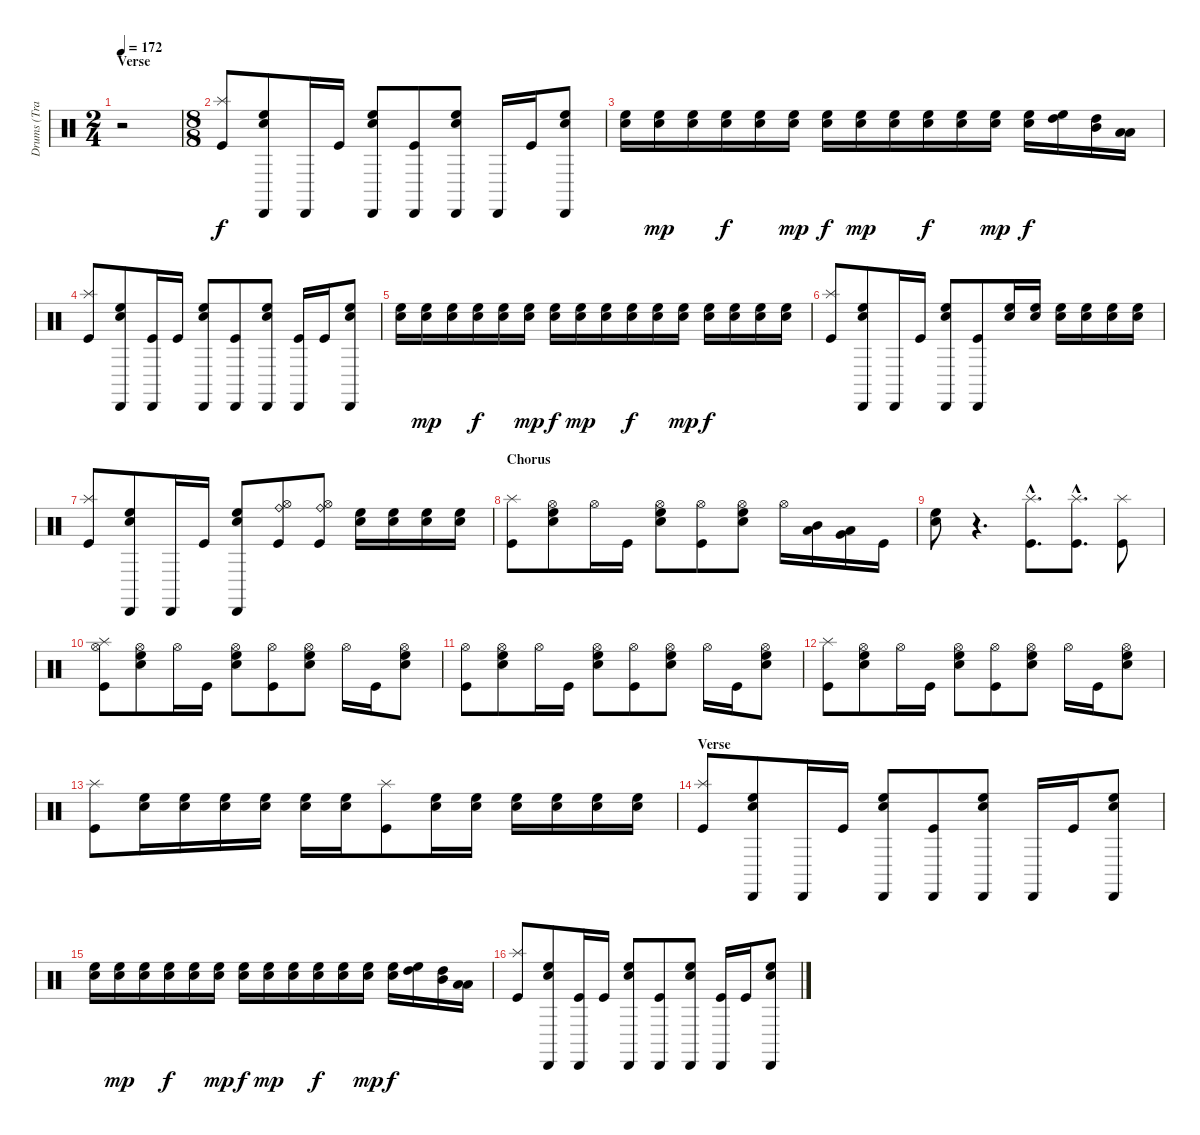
\track ("Drums (Travis Barker)" "Drums (Tra") {instrument percussion}
\staff {score}
\articulation defaults
\ts (2 4)
\section ("" "Verse")
\tempo 172
\clef neutral
\ks c
r.2{dy f} |
\ts (8 8)
("Splash (hit)" "Kick (hit)").8 ("Cabasa (hit)" "High Floor Tom (hit)" "Electric Snare (hit)").8 "Cabasa (hit)".16 "Kick (hit)".16 ("Cabasa (hit)" "High Floor Tom (hit)" "Electric Snare (hit)").8 ("Cabasa (hit)" "Kick (hit)").8 ("Cabasa (hit)" "High Floor Tom (hit)" "Electric Snare (hit)").8 "Cabasa (hit)".16 "Kick (hit)".16 ("Cabasa (hit)" "High Floor Tom (hit)" "Electric Snare (hit)").8 |
("High Floor Tom (hit)" "Electric Snare (hit)").16 ("Electric Snare (hit)" "High Floor Tom (hit)").16{dy mp} ("Electric Snare (hit)" "High Floor Tom (hit)").16 ("High Floor Tom (hit)" "Electric Snare (hit)").16{dy f} ("High Floor Tom (hit)" "Electric Snare (hit)").16 ("Electric Snare (hit)" "High Floor Tom (hit)").16{dy mp} ("High Floor Tom (hit)" "Electric Snare (hit)").16{dy f} ("Electric Snare (hit)" "High Floor Tom (hit)").16{dy mp} ("Electric Snare (hit)" "High Floor Tom (hit)").16 ("High Floor Tom (hit)" "Electric Snare (hit)").16{dy f} ("High Floor Tom (hit)" "Electric Snare (hit)").16 ("Electric Snare (hit)" "High Floor Tom (hit)").16{dy mp} ("High Floor Tom (hit)" "Electric Snare (hit)").16{dy f} ("High Tom (hit)" "High Floor Tom (hit)").16 ("Mid Tom (hit)" "High Tom (hit)").16 ("Low Floor Tom (hit)" "Low Tom (hit)").16 |
("Splash (hit)" "Kick (hit)").8 ("Cabasa (hit)" "High Floor Tom (hit)" "Electric Snare (hit)").8 ("Cabasa (hit)" "Kick (hit)").16 "Kick (hit)".16 ("Cabasa (hit)" "High Floor Tom (hit)" "Electric Snare (hit)").8 ("Cabasa (hit)" "Kick (hit)").8 ("Cabasa (hit)" "High Floor Tom (hit)" "Electric Snare (hit)").8 ("Cabasa (hit)" "Kick (hit)").16 "Kick (hit)".16 ("Cabasa (hit)" "High Floor Tom (hit)" "Electric Snare (hit)").8 |
("High Floor Tom (hit)" "Electric Snare (hit)").16 ("Electric Snare (hit)" "High Floor Tom (hit)").16{dy mp} ("Electric Snare (hit)" "High Floor Tom (hit)").16 ("High Floor Tom (hit)" "Electric Snare (hit)").16{dy f} ("High Floor Tom (hit)" "Electric Snare (hit)").16 ("Electric Snare (hit)" "High Floor Tom (hit)").16{dy mp} ("High Floor Tom (hit)" "Electric Snare (hit)").16{dy f} ("Electric Snare (hit)" "High Floor Tom (hit)").16{dy mp} ("Electric Snare (hit)" "High Floor Tom (hit)").16 ("High Floor Tom (hit)" "Electric Snare (hit)").16{dy f} ("High Floor Tom (hit)" "Electric Snare (hit)").16 ("Electric Snare (hit)" "High Floor Tom (hit)").16{dy mp} ("High Floor Tom (hit)" "Electric Snare (hit)").16{dy f} ("High Floor Tom (hit)" "Electric Snare (hit)").16 ("High Floor Tom (hit)" "Electric Snare (hit)").16 ("High Floor Tom (hit)" "Electric Snare (hit)").16 |
("Splash (hit)" "Kick (hit)").8 ("Cabasa (hit)" "High Floor Tom (hit)" "Electric Snare (hit)").8 "Cabasa (hit)".16 "Kick (hit)".16 ("Cabasa (hit)" "High Floor Tom (hit)" "Electric Snare (hit)").8 ("Cabasa (hit)" "Kick (hit)").8 ("High Floor Tom (hit)" "Electric Snare (hit)").16 ("High Floor Tom (hit)" "Electric Snare (hit)").16 ("High Floor Tom (hit)" "Electric Snare (hit)").16 ("High Floor Tom (hit)" "Electric Snare (hit)").16 ("High Floor Tom (hit)" "Electric Snare (hit)").16 ("High Floor Tom (hit)" "Electric Snare (hit)").16 |
("Splash (hit)" "Kick (hit)").8 ("Cabasa (hit)" "High Floor Tom (hit)" "Electric Snare (hit)").8 "Cabasa (hit)".16 "Kick (hit)".16 ("Cabasa (hit)" "High Floor Tom (hit)" "Electric Snare (hit)").8 ("Ride (bell)" "Hi-Hat (open)" "Kick (hit)").8 ("Ride (bell)" "Hi-Hat (open)" "Kick (hit)").8 ("High Floor Tom (hit)" "Electric Snare (hit)").16 ("High Floor Tom (hit)" "Electric Snare (hit)").16 ("High Floor Tom (hit)" "Electric Snare (hit)").16 ("High Floor Tom (hit)" "Electric Snare (hit)").16 |
\section ("" "Chorus")
("Splash (hit)" "Kick (hit)").8 ("Hi-Hat (open)" "High Floor Tom (hit)" "Electric Snare (hit)").8 "Hi-Hat (open)".16 "Kick (hit)".16 ("Hi-Hat (open)" "High Floor Tom (hit)" "Electric Snare (hit)").8 ("Hi-Hat (open)" "Kick (hit)").8 ("Hi-Hat (open)" "High Floor Tom (hit)" "Electric Snare (hit)").8 "Hi-Hat (open)".16 ("Low Tom (hit)" "Mid Tom (hit)").16 ("Very Low Tom (hit)" "Low Floor Tom (hit)").16 "Kick (hit)".16 |
("High Floor Tom (hit)" "Electric Snare (hit)").8 r.4{d} ("Splash (hit)"{hac} "Kick (hit)"{hac}).8{d} ("Splash (hit)"{hac} "Kick (hit)"{hac}).8{d} ("Splash (hit)" "Kick (hit)").8 |
("Splash (hit)" "Hi-Hat (open)" "Kick (hit)").8 ("Hi-Hat (open)" "High Floor Tom (hit)" "Electric Snare (hit)").8 "Hi-Hat (open)".16 "Kick (hit)".16 ("Hi-Hat (open)" "High Floor Tom (hit)" "Electric Snare (hit)").8 ("Hi-Hat (open)" "Kick (hit)").8 ("Hi-Hat (open)" "High Floor Tom (hit)" "Electric Snare (hit)").8 "Hi-Hat (open)".16 "Kick (hit)".16 ("Hi-Hat (open)" "High Floor Tom (hit)" "Electric Snare (hit)").8 |
("Hi-Hat (open)" "Kick (hit)").8 ("Hi-Hat (open)" "High Floor Tom (hit)" "Electric Snare (hit)").8 "Hi-Hat (open)".16 "Kick (hit)".16 ("Hi-Hat (open)" "High Floor Tom (hit)" "Electric Snare (hit)").8 ("Hi-Hat (open)" "Kick (hit)").8 ("Hi-Hat (open)" "High Floor Tom (hit)" "Electric Snare (hit)").8 "Hi-Hat (open)".16 "Kick (hit)".16 ("Hi-Hat (open)" "High Floor Tom (hit)" "Electric Snare (hit)").8 |
("Splash (hit)" "Kick (hit)").8 ("Hi-Hat (open)" "High Floor Tom (hit)" "Electric Snare (hit)").8 "Hi-Hat (open)".16 "Kick (hit)".16 ("Hi-Hat (open)" "High Floor Tom (hit)" "Electric Snare (hit)").8 ("Hi-Hat (open)" "Kick (hit)").8 ("Hi-Hat (open)" "High Floor Tom (hit)" "Electric Snare (hit)").8 "Hi-Hat (open)".16 "Kick (hit)".16 ("Hi-Hat (open)" "High Floor Tom (hit)" "Electric Snare (hit)").8 |
("Splash (hit)" "Kick (hit)").8 ("High Floor Tom (hit)" "Electric Snare (hit)").16 ("High Floor Tom (hit)" "Electric Snare (hit)").16 ("High Floor Tom (hit)" "Electric Snare (hit)").16 ("High Floor Tom (hit)" "Electric Snare (hit)").16 ("High Floor Tom (hit)" "Electric Snare (hit)").16 ("High Floor Tom (hit)" "Electric Snare (hit)").16 ("Splash (hit)" "Kick (hit)").8 ("High Floor Tom (hit)" "Electric Snare (hit)").16 ("High Floor Tom (hit)" "Electric Snare (hit)").16 ("High Floor Tom (hit)" "Electric Snare (hit)").16 ("High Floor Tom (hit)" "Electric Snare (hit)").16 ("High Floor Tom (hit)" "Electric Snare (hit)").16 ("High Floor Tom (hit)" "Electric Snare (hit)").16 |
\section ("" "Verse")
("Splash (hit)" "Kick (hit)").8 ("Cabasa (hit)" "High Floor Tom (hit)" "Electric Snare (hit)").8 "Cabasa (hit)".16 "Kick (hit)".16 ("Cabasa (hit)" "High Floor Tom (hit)" "Electric Snare (hit)").8 ("Cabasa (hit)" "Kick (hit)").8 ("Cabasa (hit)" "High Floor Tom (hit)" "Electric Snare (hit)").8 "Cabasa (hit)".16 "Kick (hit)".16 ("Cabasa (hit)" "High Floor Tom (hit)" "Electric Snare (hit)").8 |
("High Floor Tom (hit)" "Electric Snare (hit)").16 ("Electric Snare (hit)" "High Floor Tom (hit)").16{dy mp} ("Electric Snare (hit)" "High Floor Tom (hit)").16 ("High Floor Tom (hit)" "Electric Snare (hit)").16{dy f} ("High Floor Tom (hit)" "Electric Snare (hit)").16 ("Electric Snare (hit)" "High Floor Tom (hit)").16{dy mp} ("High Floor Tom (hit)" "Electric Snare (hit)").16{dy f} ("Electric Snare (hit)" "High Floor Tom (hit)").16{dy mp} ("Electric Snare (hit)" "High Floor Tom (hit)").16 ("High Floor Tom (hit)" "Electric Snare (hit)").16{dy f} ("High Floor Tom (hit)" "Electric Snare (hit)").16 ("Electric Snare (hit)" "High Floor Tom (hit)").16{dy mp} ("High Floor Tom (hit)" "Electric Snare (hit)").16{dy f} ("High Tom (hit)" "High Floor Tom (hit)").16 ("Mid Tom (hit)" "High Tom (hit)").16 ("Low Floor Tom (hit)" "Low Tom (hit)").16 |
("Splash (hit)" "Kick (hit)").8 ("Cabasa (hit)" "High Floor Tom (hit)" "Electric Snare (hit)").8 ("Cabasa (hit)" "Kick (hit)").16 "Kick (hit)".16 ("Cabasa (hit)" "High Floor Tom (hit)" "Electric Snare (hit)").8 ("Cabasa (hit)" "Kick (hit)").8 ("Cabasa (hit)" "High Floor Tom (hit)" "Electric Snare (hit)").8 ("Cabasa (hit)" "Kick (hit)").16 "Kick (hit)".16 ("Cabasa (hit)" "High Floor Tom (hit)" "Electric Snare (hit)").8
